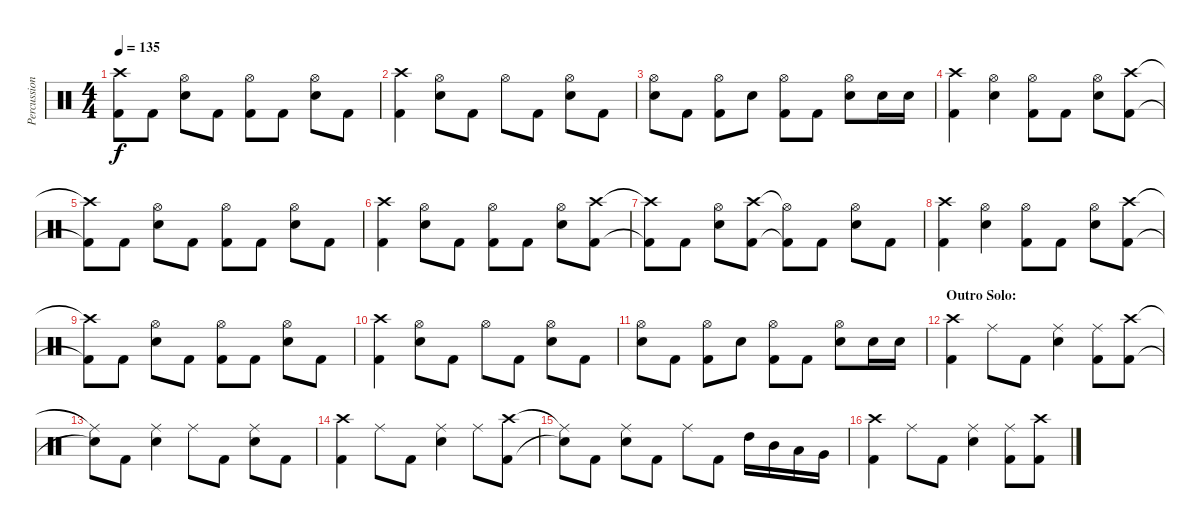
\track ("Percussion" "Percussion") {instrument percussion}
\staff {score}
\articulation defaults
\ts (4 4)
\tempo 135
\clef neutral
\ks c
("Crash high (hit)"{t} "Kick (hit) 2"{t}).8{dy f} "Kick (hit) 2".8 ("Hi-Hat (open)" "Electric Snare (hit)").8 "Kick (hit) 2".8 ("Hi-Hat (open)" "Kick (hit) 2").8 "Kick (hit) 2".8 ("Hi-Hat (open)" "Electric Snare (hit)").8 "Kick (hit) 2".8 |
("Crash high (hit)" "Kick (hit) 2").4 ("Hi-Hat (open)" "Electric Snare (hit)").8 "Kick (hit) 2".8 "Hi-Hat (open)".8 "Kick (hit) 2".8 ("Hi-Hat (open)" "Electric Snare (hit)").8 "Kick (hit) 2".8 |
("Hi-Hat (open)" "Electric Snare (hit)").8 "Kick (hit) 2".8 ("Hi-Hat (open)" "Kick (hit) 2").8 "Electric Snare (hit)".8 ("Hi-Hat (open)" "Kick (hit) 2").8 "Kick (hit) 2".8 ("Hi-Hat (open)" "Electric Snare (hit)").8 "Electric Snare (hit)".16 "Electric Snare (hit)".16 |
("Crash high (hit)" "Kick (hit) 2").4 ("Hi-Hat (open)" "Electric Snare (hit)").4 ("Hi-Hat (open)" "Kick (hit) 2").8 "Kick (hit) 2".8 ("Hi-Hat (open)" "Electric Snare (hit)").8 ("Crash high (hit)" "Kick (hit) 2").8 |
("Crash high (hit)"{t} "Kick (hit) 2"{t}).8 "Kick (hit) 2".8 ("Hi-Hat (open)" "Electric Snare (hit)").8 "Kick (hit) 2".8 ("Hi-Hat (open)" "Kick (hit) 2").8 "Kick (hit) 2".8 ("Hi-Hat (open)" "Electric Snare (hit)").8 "Kick (hit) 2".8 |
("Crash high (hit)" "Kick (hit) 2").4 ("Hi-Hat (open)" "Electric Snare (hit)").8 "Kick (hit) 2".8 ("Hi-Hat (open)" "Kick (hit) 2").8 "Kick (hit) 2".8 ("Hi-Hat (open)" "Electric Snare (hit)").8 ("Crash high (hit)" "Kick (hit) 2").8 |
("Crash high (hit)"{t} "Kick (hit) 2"{t}).8 "Kick (hit) 2".8 ("Hi-Hat (open)" "Electric Snare (hit)").8 ("Crash high (hit)" "Kick (hit) 2").8 ("Hi-Hat (open)"{t} "Kick (hit) 2"{t}).8 "Kick (hit) 2".8 ("Hi-Hat (open)" "Electric Snare (hit)").8 "Kick (hit) 2".8 |
("Crash high (hit)" "Kick (hit) 2").4 ("Hi-Hat (open)" "Electric Snare (hit)").4 ("Hi-Hat (open)" "Kick (hit) 2").8 "Kick (hit) 2".8 ("Hi-Hat (open)" "Electric Snare (hit)").8 ("Crash high (hit)" "Kick (hit) 2").8 |
("Crash high (hit)"{t} "Kick (hit) 2"{t}).8 "Kick (hit) 2".8 ("Hi-Hat (open)" "Electric Snare (hit)").8 "Kick (hit) 2".8 ("Hi-Hat (open)" "Kick (hit) 2").8 "Kick (hit) 2".8 ("Hi-Hat (open)" "Electric Snare (hit)").8 "Kick (hit) 2".8 |
("Crash high (hit)" "Kick (hit) 2").4 ("Hi-Hat (open)" "Electric Snare (hit)").8 "Kick (hit) 2".8 "Hi-Hat (open)".8 "Kick (hit) 2".8 ("Hi-Hat (open)" "Electric Snare (hit)").8 "Kick (hit) 2".8 |
("Hi-Hat (open)" "Electric Snare (hit)").8 "Kick (hit) 2".8 ("Hi-Hat (open)" "Kick (hit) 2").8 "Electric Snare (hit)".8 ("Hi-Hat (open)" "Kick (hit) 2").8 "Kick (hit) 2".8 ("Hi-Hat (open)" "Electric Snare (hit)").8 "Electric Snare (hit)".16 "Electric Snare (hit)".16 |
\section ("" "Outro Solo:")
("Crash high (hit)" "Kick (hit) 2").4 "Ride (middle)".8 "Kick (hit) 2".8 ("Ride (middle)" "Electric Snare (hit)").4 ("Ride (middle)" "Kick (hit) 2").8 ("Crash high (hit)" "Kick (hit) 2").8 |
("Ride (middle)"{t} "Snare (hit)"{t}).8 "Kick (hit) 2".8 ("Ride (middle)" "Electric Snare (hit)").4 "Ride (middle)".8 "Kick (hit) 2".8 ("Ride (middle)" "Electric Snare (hit)").8 "Kick (hit) 2".8 |
("Crash high (hit)" "Kick (hit) 2").4 "Ride (middle)".8 "Kick (hit) 2".8 ("Ride (middle)" "Electric Snare (hit)").4 "Ride (middle)".8 ("Crash high (hit)" "Kick (hit) 2").8 |
("Ride (middle)"{t} "Snare (hit)"{t}).8 "Kick (hit) 2".8 ("Ride (middle)" "Electric Snare (hit)").8 "Kick (hit) 2".8 "Ride (middle)".8 "Kick (hit) 2".8 "High Tom (hit)".16 "Mid Tom (hit)".16 "Low Tom (hit)".16 "Very Low Tom (hit)".16 |
("Crash high (hit)" "Kick (hit) 2").4 "Ride (middle)".8 "Kick (hit) 2".8 ("Ride (middle)" "Electric Snare (hit)").4 ("Ride (middle)" "Kick (hit) 2").8 ("Crash high (hit)" "Kick (hit) 2").8
